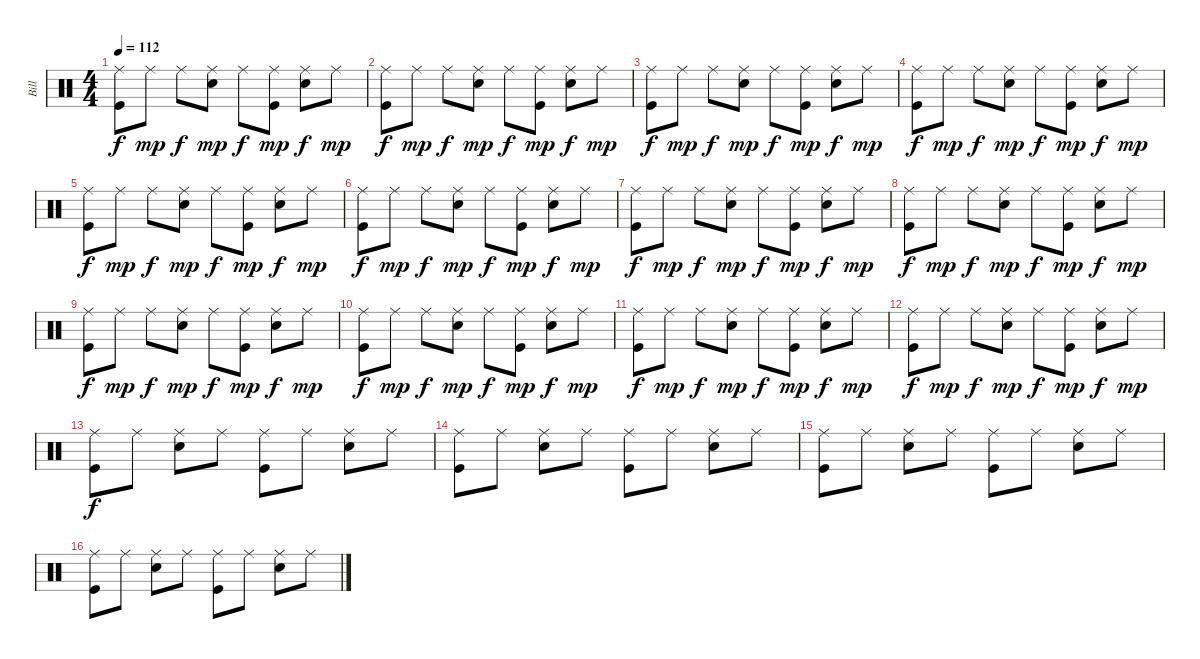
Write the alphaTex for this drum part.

\track ("Bill" "Bill") {instrument percussion}
\staff {score}
\articulation defaults
\ts (4 4)
\tempo 112
\clef neutral
\ks c
("Ride (middle)" "Kick (hit)").8{dy f} "Ride (middle)".8{dy mp} "Ride (middle)".8{dy f} ("Ride (middle)" "Snare (hit) 2").8{dy mp} "Ride (middle)".8{dy f} ("Ride (middle)" "Kick (hit)").8{dy mp} ("Ride (middle)" "Snare (hit) 2").8{dy f} "Ride (middle)".8{dy mp} |
("Ride (middle)" "Kick (hit)").8{dy f} "Ride (middle)".8{dy mp} "Ride (middle)".8{dy f} ("Ride (middle)" "Snare (hit) 2").8{dy mp} "Ride (middle)".8{dy f} ("Ride (middle)" "Kick (hit)").8{dy mp} ("Ride (middle)" "Snare (hit) 2").8{dy f} "Ride (middle)".8{dy mp} |
("Ride (middle)" "Kick (hit)").8{dy f} "Ride (middle)".8{dy mp} "Ride (middle)".8{dy f} ("Ride (middle)" "Snare (hit) 2").8{dy mp} "Ride (middle)".8{dy f} ("Ride (middle)" "Kick (hit)").8{dy mp} ("Ride (middle)" "Snare (hit) 2").8{dy f} "Ride (middle)".8{dy mp} |
("Ride (middle)" "Kick (hit)").8{dy f} "Ride (middle)".8{dy mp} "Ride (middle)".8{dy f} ("Ride (middle)" "Snare (hit) 2").8{dy mp} "Ride (middle)".8{dy f} ("Ride (middle)" "Kick (hit)").8{dy mp} ("Ride (middle)" "Snare (hit) 2").8{dy f} "Ride (middle)".8{dy mp} |
("Ride (middle)" "Kick (hit)").8{dy f} "Ride (middle)".8{dy mp} "Ride (middle)".8{dy f} ("Ride (middle)" "Snare (hit) 2").8{dy mp} "Ride (middle)".8{dy f} ("Ride (middle)" "Kick (hit)").8{dy mp} ("Ride (middle)" "Snare (hit) 2").8{dy f} "Ride (middle)".8{dy mp} |
("Ride (middle)" "Kick (hit)").8{dy f} "Ride (middle)".8{dy mp} "Ride (middle)".8{dy f} ("Ride (middle)" "Snare (hit) 2").8{dy mp} "Ride (middle)".8{dy f} ("Ride (middle)" "Kick (hit)").8{dy mp} ("Ride (middle)" "Snare (hit) 2").8{dy f} "Ride (middle)".8{dy mp} |
("Ride (middle)" "Kick (hit)").8{dy f} "Ride (middle)".8{dy mp} "Ride (middle)".8{dy f} ("Ride (middle)" "Snare (hit) 2").8{dy mp} "Ride (middle)".8{dy f} ("Ride (middle)" "Kick (hit)").8{dy mp} ("Ride (middle)" "Snare (hit) 2").8{dy f} "Ride (middle)".8{dy mp} |
("Ride (middle)" "Kick (hit)").8{dy f} "Ride (middle)".8{dy mp} "Ride (middle)".8{dy f} ("Ride (middle)" "Snare (hit) 2").8{dy mp} "Ride (middle)".8{dy f} ("Ride (middle)" "Kick (hit)").8{dy mp} ("Ride (middle)" "Snare (hit) 2").8{dy f} "Ride (middle)".8{dy mp} |
("Ride (middle)" "Kick (hit)").8{dy f} "Ride (middle)".8{dy mp} "Ride (middle)".8{dy f} ("Ride (middle)" "Snare (hit) 2").8{dy mp} "Ride (middle)".8{dy f} ("Ride (middle)" "Kick (hit)").8{dy mp} ("Ride (middle)" "Snare (hit) 2").8{dy f} "Ride (middle)".8{dy mp} |
("Ride (middle)" "Kick (hit)").8{dy f} "Ride (middle)".8{dy mp} "Ride (middle)".8{dy f} ("Ride (middle)" "Snare (hit) 2").8{dy mp} "Ride (middle)".8{dy f} ("Ride (middle)" "Kick (hit)").8{dy mp} ("Ride (middle)" "Snare (hit) 2").8{dy f} "Ride (middle)".8{dy mp} |
("Ride (middle)" "Kick (hit)").8{dy f} "Ride (middle)".8{dy mp} "Ride (middle)".8{dy f} ("Ride (middle)" "Snare (hit) 2").8{dy mp} "Ride (middle)".8{dy f} ("Ride (middle)" "Kick (hit)").8{dy mp} ("Ride (middle)" "Snare (hit) 2").8{dy f} "Ride (middle)".8{dy mp} |
("Ride (middle)" "Kick (hit)").8{dy f} "Ride (middle)".8{dy mp} "Ride (middle)".8{dy f} ("Ride (middle)" "Snare (hit) 2").8{dy mp} "Ride (middle)".8{dy f} ("Ride (middle)" "Kick (hit)").8{dy mp} ("Ride (middle)" "Snare (hit) 2").8{dy f} "Ride (middle)".8{dy mp} |
("Ride (middle)" "Kick (hit)").8{dy f} "Ride (middle)".8 ("Ride (middle)" "Snare (hit) 2").8 "Ride (middle)".8 ("Ride (middle)" "Kick (hit)").8 "Ride (middle)".8 ("Ride (middle)" "Snare (hit) 2").8 "Ride (middle)".8 |
("Ride (middle)" "Kick (hit)").8 "Ride (middle)".8 ("Ride (middle)" "Snare (hit) 2").8 "Ride (middle)".8 ("Ride (middle)" "Kick (hit)").8 "Ride (middle)".8 ("Ride (middle)" "Snare (hit) 2").8 "Ride (middle)".8 |
("Ride (middle)" "Kick (hit)").8 "Ride (middle)".8 ("Ride (middle)" "Snare (hit) 2").8 "Ride (middle)".8 ("Ride (middle)" "Kick (hit)").8 "Ride (middle)".8 ("Ride (middle)" "Snare (hit) 2").8 "Ride (middle)".8 |
("Ride (middle)" "Kick (hit)").8 "Ride (middle)".8 ("Ride (middle)" "Snare (hit) 2").8 "Ride (middle)".8 ("Ride (middle)" "Kick (hit)").8 "Ride (middle)".8 ("Ride (middle)" "Snare (hit) 2").8 "Ride (middle)".8
